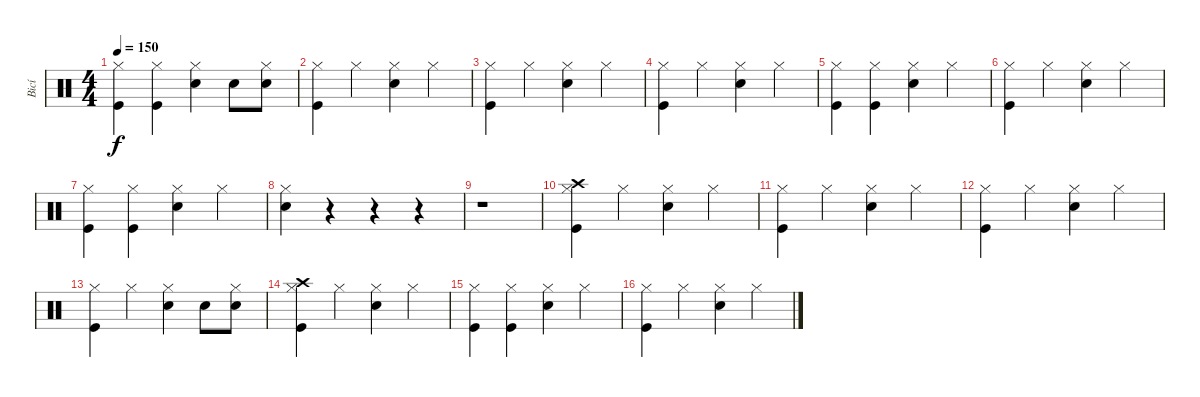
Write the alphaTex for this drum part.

\track ("Bicí" "Bicí") {instrument percussion}
\staff {score}
\articulation defaults
\ts (4 4)
\tempo 150
\clef neutral
\ks c
("Kick (hit)" "Hi-Hat (closed)").4{dy f} ("Kick (hit)" "Hi-Hat (closed)").4 ("Snare (hit) 2" "Hi-Hat (closed)").4 "Snare (hit) 2".8 ("Snare (hit) 2" "Hi-Hat (closed)").8 |
("Kick (hit)" "Hi-Hat (closed)").4 "Hi-Hat (closed)".4 ("Snare (hit) 2" "Hi-Hat (closed)").4 "Hi-Hat (closed)".4 |
("Kick (hit)" "Hi-Hat (closed)").4 "Hi-Hat (closed)".4 ("Snare (hit) 2" "Hi-Hat (closed)").4 "Hi-Hat (closed)".4 |
("Kick (hit)" "Hi-Hat (closed)").4 "Hi-Hat (closed)".4 ("Snare (hit) 2" "Hi-Hat (closed)").4 "Hi-Hat (closed)".4 |
("Kick (hit)" "Hi-Hat (closed)").4 ("Kick (hit)" "Hi-Hat (closed)").4 ("Snare (hit) 2" "Hi-Hat (closed)").4 "Hi-Hat (closed)".4 |
("Kick (hit)" "Hi-Hat (closed)").4 "Hi-Hat (closed)".4 ("Snare (hit) 2" "Hi-Hat (closed)").4 "Hi-Hat (closed)".4 |
("Kick (hit)" "Hi-Hat (closed)").4 ("Kick (hit)" "Hi-Hat (closed)").4 ("Snare (hit) 2" "Hi-Hat (closed)").4 "Hi-Hat (closed)".4 |
("Snare (hit) 2" "Hi-Hat (closed)").4 r.4 r.4 r.4 |
r.1 |
("Kick (hit)" "Crash high (hit)" "Hi-Hat (closed)").4 "Hi-Hat (closed)".4 ("Snare (hit) 2" "Hi-Hat (closed)").4 "Hi-Hat (closed)".4 |
("Kick (hit)" "Hi-Hat (closed)").4 "Hi-Hat (closed)".4 ("Snare (hit) 2" "Hi-Hat (closed)").4 "Hi-Hat (closed)".4 |
("Kick (hit)" "Hi-Hat (closed)").4 "Hi-Hat (closed)".4 ("Snare (hit) 2" "Hi-Hat (closed)").4 "Hi-Hat (closed)".4 |
("Kick (hit)" "Hi-Hat (closed)").4 "Hi-Hat (closed)".4 ("Snare (hit) 2" "Hi-Hat (closed)").4 "Snare (hit) 2".8 ("Snare (hit) 2" "Hi-Hat (closed)").8 |
("Kick (hit)" "Crash high (hit)" "Hi-Hat (closed)").4 "Hi-Hat (closed)".4 ("Snare (hit) 2" "Hi-Hat (closed)").4 "Hi-Hat (closed)".4 |
("Kick (hit)" "Hi-Hat (closed)").4 ("Kick (hit)" "Hi-Hat (closed)").4 ("Snare (hit) 2" "Hi-Hat (closed)").4 "Hi-Hat (closed)".4 |
("Kick (hit)" "Hi-Hat (closed)").4 "Hi-Hat (closed)".4 ("Snare (hit) 2" "Hi-Hat (closed)").4 "Hi-Hat (closed)".4
